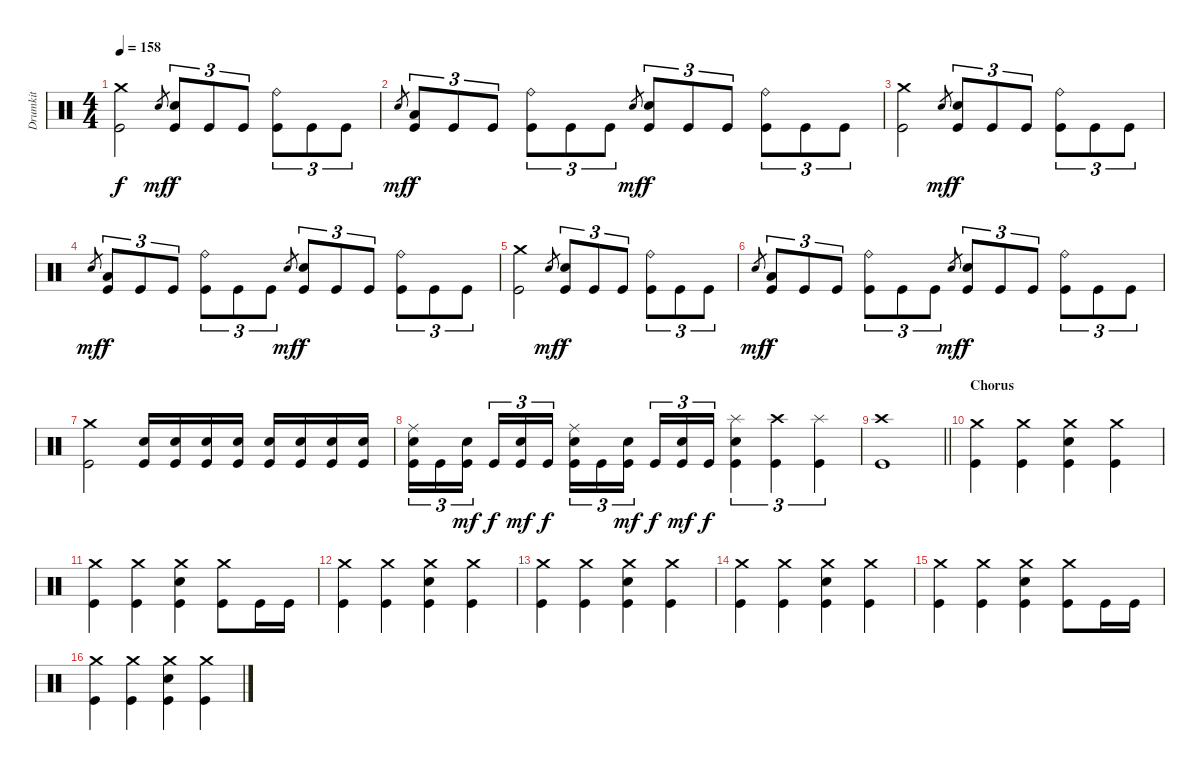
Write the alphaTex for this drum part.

\track ("Drumkit" "Drumkit") {instrument percussion}
\staff {score}
\articulation defaults
\ts (4 4)
\tempo 158
\clef neutral
\ks c
("Crash medium (hit)" "Kick (hit)").2{dy f} "Snare (hit)".8{gr dy mf} ("Snare (hit) 2" "Kick (hit)").8{tu (3 2) dy f} "Kick (hit)".8{tu (3 2)} "Kick (hit)".8{tu (3 2)} ("Ride (bell)" "Kick (hit)").8{tu (3 2)} "Kick (hit)".8{tu (3 2)} "Kick (hit)".8{tu (3 2)} |
"Snare (hit)".8{gr dy mf} ("Low Tom (hit)" "Kick (hit)").8{tu (3 2) dy f} "Kick (hit)".8{tu (3 2)} "Kick (hit)".8{tu (3 2)} ("Ride (bell)" "Kick (hit)").8{tu (3 2)} "Kick (hit)".8{tu (3 2)} "Kick (hit)".8{tu (3 2)} "Snare (hit)".8{gr dy mf} ("Snare (hit) 2" "Kick (hit)").8{tu (3 2) dy f} "Kick (hit)".8{tu (3 2)} "Kick (hit)".8{tu (3 2)} ("Ride (bell)" "Kick (hit)").8{tu (3 2)} "Kick (hit)".8{tu (3 2)} "Kick (hit)".8{tu (3 2)} |
("Crash medium (hit)" "Kick (hit)").2 "Snare (hit)".8{gr dy mf} ("Snare (hit) 2" "Kick (hit)").8{tu (3 2) dy f} "Kick (hit)".8{tu (3 2)} "Kick (hit)".8{tu (3 2)} ("Ride (bell)" "Kick (hit)").8{tu (3 2)} "Kick (hit)".8{tu (3 2)} "Kick (hit)".8{tu (3 2)} |
"Snare (hit)".8{gr dy mf} ("Low Tom (hit)" "Kick (hit)").8{tu (3 2) dy f} "Kick (hit)".8{tu (3 2)} "Kick (hit)".8{tu (3 2)} ("Ride (bell)" "Kick (hit)").8{tu (3 2)} "Kick (hit)".8{tu (3 2)} "Kick (hit)".8{tu (3 2)} "Snare (hit)".8{gr dy mf} ("Snare (hit) 2" "Kick (hit)").8{tu (3 2) dy f} "Kick (hit)".8{tu (3 2)} "Kick (hit)".8{tu (3 2)} ("Ride (bell)" "Kick (hit)").8{tu (3 2)} "Kick (hit)".8{tu (3 2)} "Kick (hit)".8{tu (3 2)} |
("Crash medium (hit)" "Kick (hit)").2 "Snare (hit)".8{gr dy mf} ("Snare (hit) 2" "Kick (hit)").8{tu (3 2) dy f} "Kick (hit)".8{tu (3 2)} "Kick (hit)".8{tu (3 2)} ("Ride (bell)" "Kick (hit)").8{tu (3 2)} "Kick (hit)".8{tu (3 2)} "Kick (hit)".8{tu (3 2)} |
"Snare (hit)".8{gr dy mf} ("Low Tom (hit)" "Kick (hit)").8{tu (3 2) dy f} "Kick (hit)".8{tu (3 2)} "Kick (hit)".8{tu (3 2)} ("Ride (bell)" "Kick (hit)").8{tu (3 2)} "Kick (hit)".8{tu (3 2)} "Kick (hit)".8{tu (3 2)} "Snare (hit)".8{gr dy mf} ("Snare (hit) 2" "Kick (hit)").8{tu (3 2) dy f} "Kick (hit)".8{tu (3 2)} "Kick (hit)".8{tu (3 2)} ("Ride (bell)" "Kick (hit)").8{tu (3 2)} "Kick (hit)".8{tu (3 2)} "Kick (hit)".8{tu (3 2)} |
("Crash medium (hit)" "Kick (hit)").2 ("Snare (hit) 2" "Kick (hit)").16 ("Snare (hit) 2" "Kick (hit)").16 ("Snare (hit) 2" "Kick (hit)").16 ("Snare (hit) 2" "Kick (hit)").16 ("Snare (hit) 2" "Kick (hit)").16 ("Snare (hit) 2" "Kick (hit)").16 ("Snare (hit) 2" "Kick (hit)").16 ("Snare (hit) 2" "Kick (hit)").16 |
("Ride (middle)" "Snare (hit) 2" "Kick (hit)").16{tu (3 2)} "Kick (hit)".16{tu (3 2)} ("Snare (hit) 2" "Kick (hit)").16{tu (3 2) dy mf} "Kick (hit)".16{tu (3 2) dy f} ("Snare (hit) 2" "Kick (hit)").16{tu (3 2) dy mf} "Kick (hit)".16{tu (3 2) dy f} ("Ride (middle)" "Snare (hit) 2" "Kick (hit)").16{tu (3 2)} "Kick (hit)".16{tu (3 2)} ("Snare (hit) 2" "Kick (hit)").16{tu (3 2) dy mf} "Kick (hit)".16{tu (3 2) dy f} ("Snare (hit) 2" "Kick (hit)").16{tu (3 2) dy mf} "Kick (hit)".16{tu (3 2) dy f} ("Splash (hit)" "Snare (hit) 2" "Kick (hit)").4{tu (3 2)} ("Crash high (hit)" "Kick (hit)").4{tu (3 2)} ("Splash (hit)" "Kick (hit)").4{tu (3 2)} |
\barLineRight lightlight
("Crash high (hit)" "Kick (hit)").1 |
\section ("" "Chorus")
("Crash medium (hit)" "Kick (hit)").4 ("Crash medium (hit)" "Kick (hit)").4 ("Crash medium (hit)" "Snare (hit) 2" "Kick (hit)").4 ("Crash medium (hit)" "Kick (hit)").4 |
("Crash medium (hit)" "Kick (hit)").4 ("Crash medium (hit)" "Kick (hit)").4 ("Crash medium (hit)" "Snare (hit) 2" "Kick (hit)").4 ("Crash medium (hit)" "Kick (hit)").8 "Kick (hit)".16 "Kick (hit)".16 |
("Crash medium (hit)" "Kick (hit)").4 ("Crash medium (hit)" "Kick (hit)").4 ("Crash medium (hit)" "Snare (hit) 2" "Kick (hit)").4 ("Crash medium (hit)" "Kick (hit)").4 |
("Crash medium (hit)" "Kick (hit)").4 ("Crash medium (hit)" "Kick (hit)").4 ("Crash medium (hit)" "Snare (hit) 2" "Kick (hit)").4 ("Crash medium (hit)" "Kick (hit)").4 |
("Crash medium (hit)" "Kick (hit)").4 ("Crash medium (hit)" "Kick (hit)").4 ("Crash medium (hit)" "Snare (hit) 2" "Kick (hit)").4 ("Crash medium (hit)" "Kick (hit)").4 |
("Crash medium (hit)" "Kick (hit)").4 ("Crash medium (hit)" "Kick (hit)").4 ("Crash medium (hit)" "Snare (hit) 2" "Kick (hit)").4 ("Crash medium (hit)" "Kick (hit)").8 "Kick (hit)".16 "Kick (hit)".16 |
("Crash medium (hit)" "Kick (hit)").4 ("Crash medium (hit)" "Kick (hit)").4 ("Crash medium (hit)" "Snare (hit) 2" "Kick (hit)").4 ("Crash medium (hit)" "Kick (hit)").4
